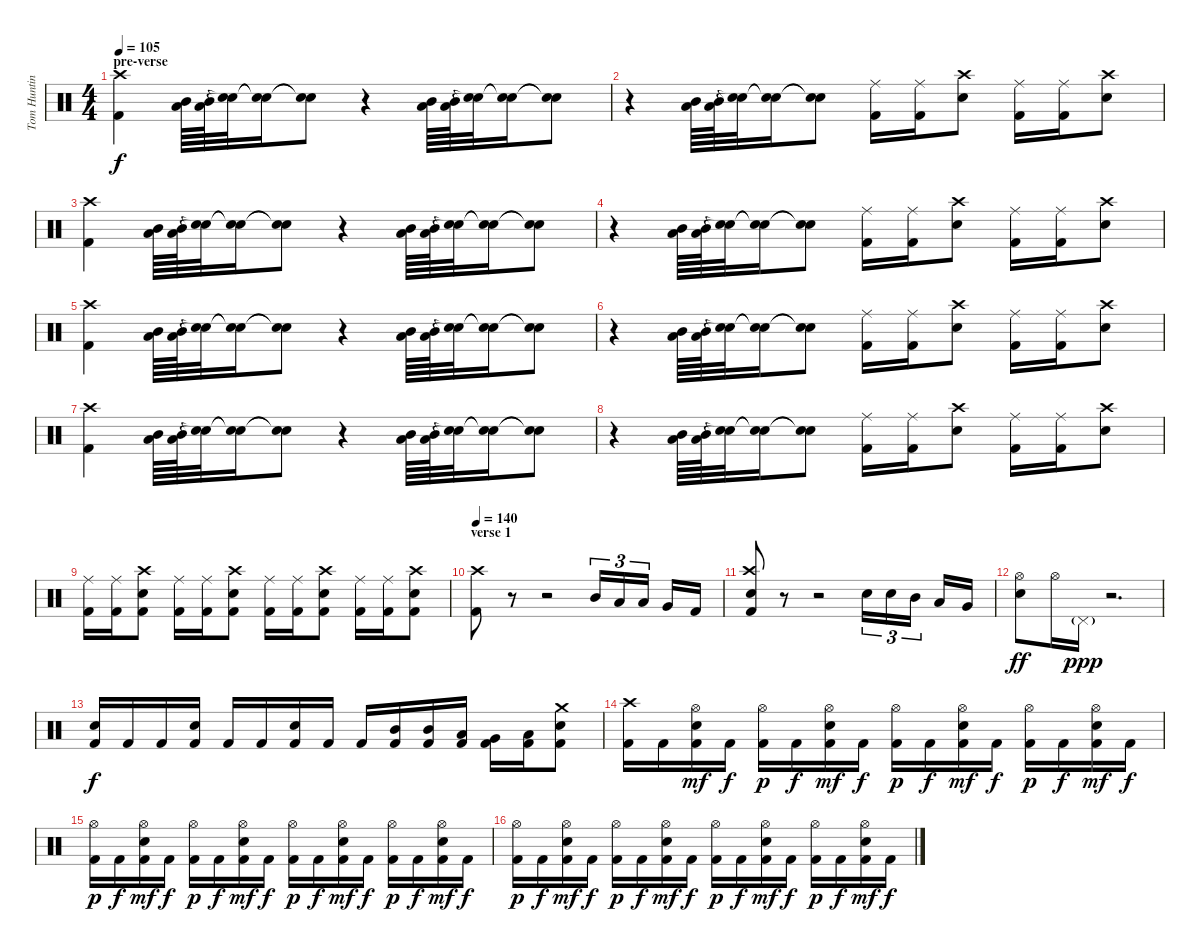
\track ("Tom Hunting" "Tom Huntin") {instrument percussion}
\staff {score}
\articulation defaults
\ts (4 4)
\section ("" "pre-verse")
\tempo 105
\clef neutral
\ks c
("Kick (hit) 2" "Crash high (hit)").4{dy f} ("Low Tom (hit)" "Mid Tom (hit)").64 ("Low Tom (hit)" "Mid Tom (hit)").64 ("Snare (hit)"{t} "Snare (hit)"{t}).32 ("Snare (hit)"{t} "Snare (hit)"{t}).16 ("Snare (hit)"{t} "Snare (hit)"{t}).8 r.4 ("Low Tom (hit)" "Mid Tom (hit)").64 ("Low Tom (hit)" "Mid Tom (hit)").64 ("Snare (hit)"{t} "Snare (hit)"{t}).32 ("Snare (hit)"{t} "Snare (hit)"{t}).16 ("Snare (hit)"{t} "Snare (hit)"{t}).8 |
r.4 ("Low Tom (hit)" "Mid Tom (hit)").64 ("Low Tom (hit)" "Mid Tom (hit)").64 ("Snare (hit)"{t} "Snare (hit)"{t}).32 ("Snare (hit)"{t} "Snare (hit)"{t}).16 ("Snare (hit)"{t} "Snare (hit)"{t}).8 ("Kick (hit) 2" "Ride (middle)").16 ("Kick (hit) 2" "Ride (middle)").16 ("Crash high (hit)" "Snare (hit) 2").8 ("Kick (hit) 2" "Ride (middle)").16 ("Kick (hit) 2" "Ride (middle)").16 ("Crash high (hit)" "Snare (hit) 2").8 |
("Kick (hit) 2" "Crash high (hit)").4 ("Low Tom (hit)" "Mid Tom (hit)").64 ("Low Tom (hit)" "Mid Tom (hit)").64 ("Snare (hit)"{t} "Snare (hit)"{t}).32 ("Snare (hit)"{t} "Snare (hit)"{t}).16 ("Snare (hit)"{t} "Snare (hit)"{t}).8 r.4 ("Low Tom (hit)" "Mid Tom (hit)").64 ("Low Tom (hit)" "Mid Tom (hit)").64 ("Snare (hit)"{t} "Snare (hit)"{t}).32 ("Snare (hit)"{t} "Snare (hit)"{t}).16 ("Snare (hit)"{t} "Snare (hit)"{t}).8 |
r.4 ("Low Tom (hit)" "Mid Tom (hit)").64 ("Low Tom (hit)" "Mid Tom (hit)").64 ("Snare (hit)"{t} "Snare (hit)"{t}).32 ("Snare (hit)"{t} "Snare (hit)"{t}).16 ("Snare (hit)"{t} "Snare (hit)"{t}).8 ("Kick (hit) 2" "Ride (middle)").16 ("Kick (hit) 2" "Ride (middle)").16 ("Crash high (hit)" "Snare (hit) 2").8 ("Kick (hit) 2" "Ride (middle)").16 ("Kick (hit) 2" "Ride (middle)").16 ("Crash high (hit)" "Snare (hit) 2").8 |
("Kick (hit) 2" "Crash high (hit)").4 ("Low Tom (hit)" "Mid Tom (hit)").64 ("Low Tom (hit)" "Mid Tom (hit)").64 ("Snare (hit)"{t} "Snare (hit)"{t}).32 ("Snare (hit)"{t} "Snare (hit)"{t}).16 ("Snare (hit)"{t} "Snare (hit)"{t}).8 r.4 ("Low Tom (hit)" "Mid Tom (hit)").64 ("Low Tom (hit)" "Mid Tom (hit)").64 ("Snare (hit)"{t} "Snare (hit)"{t}).32 ("Snare (hit)"{t} "Snare (hit)"{t}).16 ("Snare (hit)"{t} "Snare (hit)"{t}).8 |
r.4 ("Low Tom (hit)" "Mid Tom (hit)").64 ("Low Tom (hit)" "Mid Tom (hit)").64 ("Snare (hit)"{t} "Snare (hit)"{t}).32 ("Snare (hit)"{t} "Snare (hit)"{t}).16 ("Snare (hit)"{t} "Snare (hit)"{t}).8 ("Kick (hit) 2" "Ride (middle)").16 ("Kick (hit) 2" "Ride (middle)").16 ("Crash high (hit)" "Snare (hit) 2").8 ("Kick (hit) 2" "Ride (middle)").16 ("Kick (hit) 2" "Ride (middle)").16 ("Crash high (hit)" "Snare (hit) 2").8 |
("Kick (hit) 2" "Crash high (hit)").4 ("Low Tom (hit)" "Mid Tom (hit)").64 ("Low Tom (hit)" "Mid Tom (hit)").64 ("Snare (hit)"{t} "Snare (hit)"{t}).32 ("Snare (hit)"{t} "Snare (hit)"{t}).16 ("Snare (hit)"{t} "Snare (hit)"{t}).8 r.4 ("Low Tom (hit)" "Mid Tom (hit)").64 ("Low Tom (hit)" "Mid Tom (hit)").64 ("Snare (hit)"{t} "Snare (hit)"{t}).32 ("Snare (hit)"{t} "Snare (hit)"{t}).16 ("Snare (hit)"{t} "Snare (hit)"{t}).8 |
r.4 ("Low Tom (hit)" "Mid Tom (hit)").64 ("Low Tom (hit)" "Mid Tom (hit)").64 ("Snare (hit)"{t} "Snare (hit)"{t}).32 ("Snare (hit)"{t} "Snare (hit)"{t}).16 ("Snare (hit)"{t} "Snare (hit)"{t}).8 ("Kick (hit) 2" "Ride (middle)").16 ("Kick (hit) 2" "Ride (middle)").16 ("Crash high (hit)" "Snare (hit) 2").8 ("Kick (hit) 2" "Ride (middle)").16 ("Kick (hit) 2" "Ride (middle)").16 ("Crash high (hit)" "Snare (hit) 2").8 |
("Kick (hit) 2" "Ride (middle)").16 ("Kick (hit) 2" "Ride (middle)").16 ("Kick (hit) 2" "Crash high (hit)" "Snare (hit) 2").8 ("Kick (hit) 2" "Ride (middle)").16 ("Kick (hit) 2" "Ride (middle)").16 ("Kick (hit) 2" "Crash high (hit)" "Snare (hit) 2").8 ("Kick (hit) 2" "Ride (middle)").16 ("Kick (hit) 2" "Ride (middle)").16 ("Kick (hit) 2" "Crash high (hit)" "Snare (hit) 2").8 ("Kick (hit) 2" "Ride (middle)").16 ("Kick (hit) 2" "Ride (middle)").16 ("Kick (hit) 2" "Crash high (hit)" "Snare (hit) 2").8 |
\section ("" "verse 1")
\tempo 140
("Kick (hit) 2" "Crash high (hit)").8 r.8 r.2 "Mid Tom (hit)".16{tu (3 2)} "Low Tom (hit)".16{tu (3 2)} "Low Tom (hit)".16{tu (3 2)} "Very Low Tom (hit)".16 "Kick (hit) 2".16 |
("Kick (hit) 2" "Crash high (hit)" "Snare (hit) 2").8 r.8 r.2 "Snare (hit) 2".16{tu (3 2)} "Snare (hit) 2".16{tu (3 2)} "Mid Tom (hit)".16{tu (3 2)} "Low Tom (hit)".16 "Very Low Tom (hit)".16 |
("Hi-Hat (open)" "Snare (hit) 2").8{dy ff} "Hi-Hat (open)".16 "Pedal Hi-Hat (hit)"{g}.16{dy ppp} r.2{d} |
("Kick (hit) 2" "Snare (hit) 2").16{dy f} "Kick (hit) 2".16 "Kick (hit) 2".16 ("Kick (hit) 2" "Snare (hit) 2").16 "Kick (hit) 2".16 "Kick (hit) 2".16 ("Kick (hit) 2" "Snare (hit) 2").16 "Kick (hit) 2".16 "Kick (hit) 2".16 ("Kick (hit) 2" "Mid Tom (hit)").16 ("Kick (hit) 2" "Mid Tom (hit)").16 ("Kick (hit) 2" "Low Tom (hit)").16 ("Kick (hit) 2" "Very Low Tom (hit)").16 ("Kick (hit) 2" "Low Floor Tom (hit)").16 ("Kick (hit) 2" "Crash medium (hit)" "Snare (hit) 2").8 |
("Kick (hit) 2" "Crash high (hit)").16 "Kick (hit) 2".16 ("Kick (hit) 2" "Hi-Hat (open)" "Snare (hit) 2").16{dy mf} "Kick (hit) 2".16{dy f} ("Kick (hit) 2" "Hi-Hat (open)").16{dy p} "Kick (hit) 2".16{dy f} ("Kick (hit) 2" "Hi-Hat (open)" "Snare (hit) 2").16{dy mf} "Kick (hit) 2".16{dy f} ("Kick (hit) 2" "Hi-Hat (open)").16{dy p} "Kick (hit) 2".16{dy f} ("Kick (hit) 2" "Hi-Hat (open)" "Snare (hit) 2").16{dy mf} "Kick (hit) 2".16{dy f} ("Kick (hit) 2" "Hi-Hat (open)").16{dy p} "Kick (hit) 2".16{dy f} ("Kick (hit) 2" "Hi-Hat (open)" "Snare (hit) 2").16{dy mf} "Kick (hit) 2".16{dy f} |
("Kick (hit) 2" "Hi-Hat (open)").16{dy p} "Kick (hit) 2".16{dy f} ("Kick (hit) 2" "Hi-Hat (open)" "Snare (hit) 2").16{dy mf} "Kick (hit) 2".16{dy f} ("Kick (hit) 2" "Hi-Hat (open)").16{dy p} "Kick (hit) 2".16{dy f} ("Kick (hit) 2" "Hi-Hat (open)" "Snare (hit) 2").16{dy mf} "Kick (hit) 2".16{dy f} ("Kick (hit) 2" "Hi-Hat (open)").16{dy p} "Kick (hit) 2".16{dy f} ("Kick (hit) 2" "Hi-Hat (open)" "Snare (hit) 2").16{dy mf} "Kick (hit) 2".16{dy f} ("Kick (hit) 2" "Hi-Hat (open)").16{dy p} "Kick (hit) 2".16{dy f} ("Kick (hit) 2" "Hi-Hat (open)" "Snare (hit) 2").16{dy mf} "Kick (hit) 2".16{dy f} |
("Kick (hit) 2" "Hi-Hat (open)").16{dy p} "Kick (hit) 2".16{dy f} ("Kick (hit) 2" "Hi-Hat (open)" "Snare (hit) 2").16{dy mf} "Kick (hit) 2".16{dy f} ("Kick (hit) 2" "Hi-Hat (open)").16{dy p} "Kick (hit) 2".16{dy f} ("Kick (hit) 2" "Hi-Hat (open)" "Snare (hit) 2").16{dy mf} "Kick (hit) 2".16{dy f} ("Kick (hit) 2" "Hi-Hat (open)").16{dy p} "Kick (hit) 2".16{dy f} ("Kick (hit) 2" "Hi-Hat (open)" "Snare (hit) 2").16{dy mf} "Kick (hit) 2".16{dy f} ("Kick (hit) 2" "Hi-Hat (open)").16{dy p} "Kick (hit) 2".16{dy f} ("Kick (hit) 2" "Hi-Hat (open)" "Snare (hit) 2").16{dy mf} "Kick (hit) 2".16{dy f}
